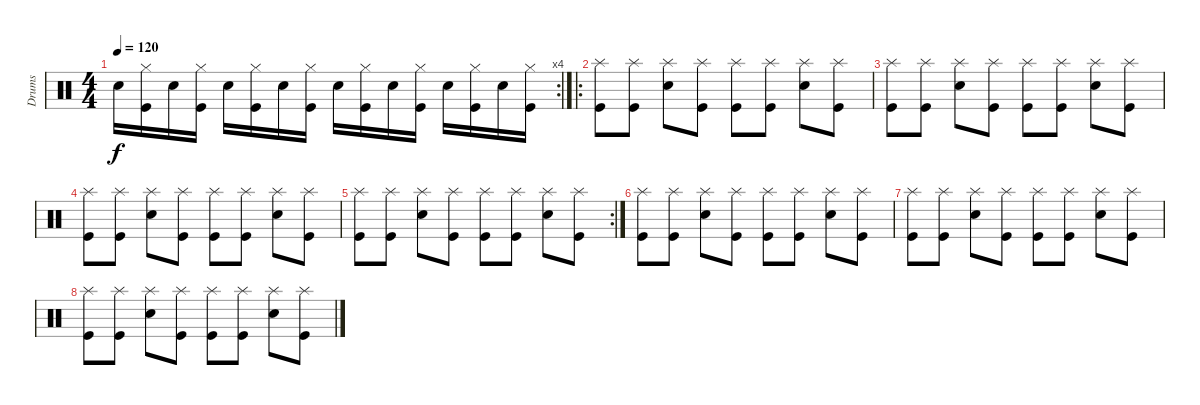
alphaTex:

\track ("Drums" "Drums") {instrument percussion}
\staff {score}
\articulation defaults
\rc 4
\ts (4 4)
\tempo 120
\clef neutral
\ks c "Electric Snare (hit)".16{dy f}
("Hi-Hat (closed)" "Kick (hit)").16 "Electric Snare (hit)".16 ("Hi-Hat (closed)" "Kick (hit)").16 "Electric Snare (hit)".16 ("Hi-Hat (closed)" "Kick (hit)").16 "Electric Snare (hit)".16 ("Hi-Hat (closed)" "Kick (hit)").16 "Electric Snare (hit)".16 ("Hi-Hat (closed)" "Kick (hit)").16 "Electric Snare (hit)".16 ("Hi-Hat (closed)" "Kick (hit)").16 "Electric Snare (hit)".16 ("Hi-Hat (closed)" "Kick (hit)").16 "Electric Snare (hit)".16 ("Hi-Hat (closed)" "Kick (hit)").16 |
\ro
("Splash (hit)" "Kick (hit)").8 ("Splash (hit)" "Kick (hit)").8 ("Splash (hit)" "Electric Snare (hit)").8 ("Splash (hit)" "Kick (hit)").8 ("Splash (hit)" "Kick (hit)").8 ("Splash (hit)" "Kick (hit)").8 ("Splash (hit)" "Electric Snare (hit)").8 ("Splash (hit)" "Kick (hit)").8 |
("Splash (hit)" "Kick (hit)").8 ("Splash (hit)" "Kick (hit)").8 ("Splash (hit)" "Electric Snare (hit)").8 ("Splash (hit)" "Kick (hit)").8 ("Splash (hit)" "Kick (hit)").8 ("Splash (hit)" "Kick (hit)").8 ("Splash (hit)" "Electric Snare (hit)").8 ("Splash (hit)" "Kick (hit)").8 |
("Splash (hit)" "Kick (hit)").8 ("Splash (hit)" "Kick (hit)").8 ("Splash (hit)" "Electric Snare (hit)").8 ("Splash (hit)" "Kick (hit)").8 ("Splash (hit)" "Kick (hit)").8 ("Splash (hit)" "Kick (hit)").8 ("Splash (hit)" "Electric Snare (hit)").8 ("Splash (hit)" "Kick (hit)").8 |
\rc 2
("Splash (hit)" "Kick (hit)").8 ("Splash (hit)" "Kick (hit)").8 ("Splash (hit)" "Electric Snare (hit)").8 ("Splash (hit)" "Kick (hit)").8 ("Splash (hit)" "Kick (hit)").8 ("Splash (hit)" "Kick (hit)").8 ("Splash (hit)" "Electric Snare (hit)").8 ("Splash (hit)" "Kick (hit)").8 |
("Splash (hit)" "Kick (hit)").8 ("Splash (hit)" "Kick (hit)").8 ("Splash (hit)" "Electric Snare (hit)").8 ("Splash (hit)" "Kick (hit)").8 ("Splash (hit)" "Kick (hit)").8 ("Splash (hit)" "Kick (hit)").8 ("Splash (hit)" "Electric Snare (hit)").8 ("Splash (hit)" "Kick (hit)").8 |
("Splash (hit)" "Kick (hit)").8 ("Splash (hit)" "Kick (hit)").8 ("Splash (hit)" "Electric Snare (hit)").8 ("Splash (hit)" "Kick (hit)").8 ("Splash (hit)" "Kick (hit)").8 ("Splash (hit)" "Kick (hit)").8 ("Splash (hit)" "Electric Snare (hit)").8 ("Splash (hit)" "Kick (hit)").8 |
("Splash (hit)" "Kick (hit)").8 ("Splash (hit)" "Kick (hit)").8 ("Splash (hit)" "Electric Snare (hit)").8 ("Splash (hit)" "Kick (hit)").8 ("Splash (hit)" "Kick (hit)").8 ("Splash (hit)" "Kick (hit)").8 ("Splash (hit)" "Electric Snare (hit)").8 ("Splash (hit)" "Kick (hit)").8
